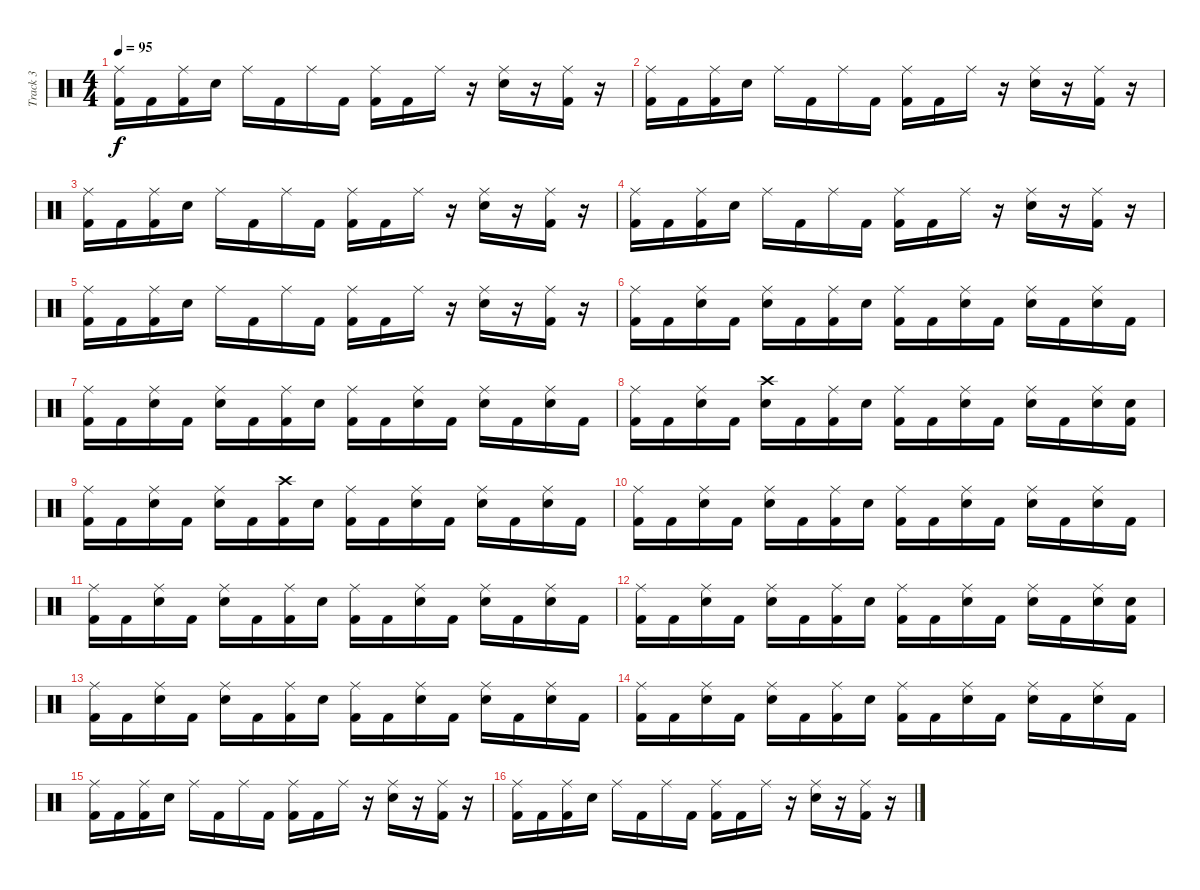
\track ("Track 3" "Track 3") {instrument percussion}
\staff {score}
\articulation defaults
\ts (4 4)
\tempo 95
\clef neutral
\ks c
("Ride (middle)" "Kick (hit) 2").16{dy f} "Kick (hit) 2".16 ("Ride (middle)" "Kick (hit) 2").16 "Snare (hit) 2".16 "Ride (middle)".16 "Kick (hit) 2".16 "Ride (middle)".16 "Kick (hit) 2".16 ("Ride (middle)" "Kick (hit) 2").16 "Kick (hit) 2".16 "Ride (middle)".16 r.16 ("Ride (middle)" "Snare (hit) 2").16 r.16 ("Ride (middle)" "Kick (hit) 2").16 r.16 |
("Ride (middle)" "Kick (hit) 2").16 "Kick (hit) 2".16 ("Ride (middle)" "Kick (hit) 2").16 "Snare (hit) 2".16 "Ride (middle)".16 "Kick (hit) 2".16 "Ride (middle)".16 "Kick (hit) 2".16 ("Ride (middle)" "Kick (hit) 2").16 "Kick (hit) 2".16 "Ride (middle)".16 r.16 ("Ride (middle)" "Snare (hit) 2").16 r.16 ("Ride (middle)" "Kick (hit) 2").16 r.16 |
("Ride (middle)" "Kick (hit) 2").16 "Kick (hit) 2".16 ("Ride (middle)" "Kick (hit) 2").16 "Snare (hit) 2".16 "Ride (middle)".16 "Kick (hit) 2".16 "Ride (middle)".16 "Kick (hit) 2".16 ("Ride (middle)" "Kick (hit) 2").16 "Kick (hit) 2".16 "Ride (middle)".16 r.16 ("Ride (middle)" "Snare (hit) 2").16 r.16 ("Ride (middle)" "Kick (hit) 2").16 r.16 |
("Ride (middle)" "Kick (hit) 2").16 "Kick (hit) 2".16 ("Ride (middle)" "Kick (hit) 2").16 "Snare (hit) 2".16 "Ride (middle)".16 "Kick (hit) 2".16 "Ride (middle)".16 "Kick (hit) 2".16 ("Ride (middle)" "Kick (hit) 2").16 "Kick (hit) 2".16 "Ride (middle)".16 r.16 ("Ride (middle)" "Snare (hit) 2").16 r.16 ("Ride (middle)" "Kick (hit) 2").16 r.16 |
("Ride (middle)" "Kick (hit) 2").16 "Kick (hit) 2".16 ("Ride (middle)" "Kick (hit) 2").16 "Snare (hit) 2".16 "Ride (middle)".16 "Kick (hit) 2".16 "Ride (middle)".16 "Kick (hit) 2".16 ("Ride (middle)" "Kick (hit) 2").16 "Kick (hit) 2".16 "Ride (middle)".16 r.16 ("Ride (middle)" "Snare (hit) 2").16 r.16 ("Ride (middle)" "Kick (hit) 2").16 r.16 |
("Ride (middle)" "Kick (hit) 2").16 "Kick (hit) 2".16 ("Ride (middle)" "Snare (hit) 2").16 "Kick (hit) 2".16 ("Ride (middle)" "Snare (hit) 2").16 "Kick (hit) 2".16 ("Ride (middle)" "Kick (hit) 2").16 "Snare (hit) 2".16 ("Ride (middle)" "Kick (hit) 2").16 "Kick (hit) 2".16 ("Ride (middle)" "Snare (hit) 2").16 "Kick (hit) 2".16 ("Ride (middle)" "Snare (hit) 2").16 "Kick (hit) 2".16 ("Ride (middle)" "Snare (hit) 2").16 "Kick (hit) 2".16 |
("Ride (middle)" "Kick (hit) 2").16 "Kick (hit) 2".16 ("Ride (middle)" "Snare (hit) 2").16 "Kick (hit) 2".16 ("Ride (middle)" "Snare (hit) 2").16 "Kick (hit) 2".16 ("Ride (middle)" "Kick (hit) 2").16 "Snare (hit) 2".16 ("Ride (middle)" "Kick (hit) 2").16 "Kick (hit) 2".16 ("Ride (middle)" "Snare (hit) 2").16 "Kick (hit) 2".16 ("Ride (middle)" "Snare (hit) 2").16 "Kick (hit) 2".16 ("Ride (middle)" "Snare (hit) 2").16 "Kick (hit) 2".16 |
("Ride (middle)" "Kick (hit) 2").16 "Kick (hit) 2".16 ("Ride (middle)" "Snare (hit) 2").16 "Kick (hit) 2".16 ("Crash high (hit)" "Snare (hit) 2").16 "Kick (hit) 2".16 ("Ride (middle)" "Kick (hit) 2").16 "Snare (hit) 2".16 ("Ride (middle)" "Kick (hit) 2").16 "Kick (hit) 2".16 ("Ride (middle)" "Snare (hit) 2").16 "Kick (hit) 2".16 ("Ride (middle)" "Snare (hit) 2").16 "Kick (hit) 2".16 ("Ride (middle)" "Snare (hit) 2").16 ("Snare (hit) 2" "Kick (hit) 2").16 |
("Ride (middle)" "Kick (hit) 2").16 "Kick (hit) 2".16 ("Ride (middle)" "Snare (hit) 2").16 "Kick (hit) 2".16 ("Ride (middle)" "Snare (hit) 2").16 "Kick (hit) 2".16 ("Crash high (hit)" "Kick (hit) 2").16 "Snare (hit) 2".16 ("Ride (middle)" "Kick (hit) 2").16 "Kick (hit) 2".16 ("Ride (middle)" "Snare (hit) 2").16 "Kick (hit) 2".16 ("Ride (middle)" "Snare (hit) 2").16 "Kick (hit) 2".16 ("Ride (middle)" "Snare (hit) 2").16 "Kick (hit) 2".16 |
("Ride (middle)" "Kick (hit) 2").16 "Kick (hit) 2".16 ("Ride (middle)" "Snare (hit) 2").16 "Kick (hit) 2".16 ("Ride (middle)" "Snare (hit) 2").16 "Kick (hit) 2".16 ("Ride (middle)" "Kick (hit) 2").16 "Snare (hit) 2".16 ("Ride (middle)" "Kick (hit) 2").16 "Kick (hit) 2".16 ("Ride (middle)" "Snare (hit) 2").16 "Kick (hit) 2".16 ("Ride (middle)" "Snare (hit) 2").16 "Kick (hit) 2".16 ("Ride (middle)" "Snare (hit) 2").16 "Kick (hit) 2".16 |
("Ride (middle)" "Kick (hit) 2").16 "Kick (hit) 2".16 ("Ride (middle)" "Snare (hit) 2").16 "Kick (hit) 2".16 ("Ride (middle)" "Snare (hit) 2").16 "Kick (hit) 2".16 ("Ride (middle)" "Kick (hit) 2").16 "Snare (hit) 2".16 ("Ride (middle)" "Kick (hit) 2").16 "Kick (hit) 2".16 ("Ride (middle)" "Snare (hit) 2").16 "Kick (hit) 2".16 ("Ride (middle)" "Snare (hit) 2").16 "Kick (hit) 2".16 ("Ride (middle)" "Snare (hit) 2").16 "Kick (hit) 2".16 |
("Ride (middle)" "Kick (hit) 2").16 "Kick (hit) 2".16 ("Ride (middle)" "Snare (hit) 2").16 "Kick (hit) 2".16 ("Ride (middle)" "Snare (hit) 2").16 "Kick (hit) 2".16 ("Ride (middle)" "Kick (hit) 2").16 "Snare (hit) 2".16 ("Ride (middle)" "Kick (hit) 2").16 "Kick (hit) 2".16 ("Ride (middle)" "Snare (hit) 2").16 "Kick (hit) 2".16 ("Ride (middle)" "Snare (hit) 2").16 "Kick (hit) 2".16 ("Ride (middle)" "Snare (hit) 2").16 ("Snare (hit) 2" "Kick (hit) 2").16 |
("Ride (middle)" "Kick (hit) 2").16 "Kick (hit) 2".16 ("Ride (middle)" "Snare (hit) 2").16 "Kick (hit) 2".16 ("Ride (middle)" "Snare (hit) 2").16 "Kick (hit) 2".16 ("Ride (middle)" "Kick (hit) 2").16 "Snare (hit) 2".16 ("Ride (middle)" "Kick (hit) 2").16 "Kick (hit) 2".16 ("Ride (middle)" "Snare (hit) 2").16 "Kick (hit) 2".16 ("Ride (middle)" "Snare (hit) 2").16 "Kick (hit) 2".16 ("Ride (middle)" "Snare (hit) 2").16 "Kick (hit) 2".16 |
("Ride (middle)" "Kick (hit) 2").16 "Kick (hit) 2".16 ("Ride (middle)" "Snare (hit) 2").16 "Kick (hit) 2".16 ("Ride (middle)" "Snare (hit) 2").16 "Kick (hit) 2".16 ("Ride (middle)" "Kick (hit) 2").16 "Snare (hit) 2".16 ("Ride (middle)" "Kick (hit) 2").16 "Kick (hit) 2".16 ("Ride (middle)" "Snare (hit) 2").16 "Kick (hit) 2".16 ("Ride (middle)" "Snare (hit) 2").16 "Kick (hit) 2".16 ("Ride (middle)" "Snare (hit) 2").16 "Kick (hit) 2".16 |
("Ride (middle)" "Kick (hit) 2").16 "Kick (hit) 2".16 ("Ride (middle)" "Kick (hit) 2").16 "Snare (hit) 2".16 "Ride (middle)".16 "Kick (hit) 2".16 "Ride (middle)".16 "Kick (hit) 2".16 ("Ride (middle)" "Kick (hit) 2").16 "Kick (hit) 2".16 "Ride (middle)".16 r.16 ("Ride (middle)" "Snare (hit) 2").16 r.16 ("Ride (middle)" "Kick (hit) 2").16 r.16 |
("Ride (middle)" "Kick (hit) 2").16 "Kick (hit) 2".16 ("Ride (middle)" "Kick (hit) 2").16 "Snare (hit) 2".16 "Ride (middle)".16 "Kick (hit) 2".16 "Ride (middle)".16 "Kick (hit) 2".16 ("Ride (middle)" "Kick (hit) 2").16 "Kick (hit) 2".16 "Ride (middle)".16 r.16 ("Ride (middle)" "Snare (hit) 2").16 r.16 ("Ride (middle)" "Kick (hit) 2").16 r.16
